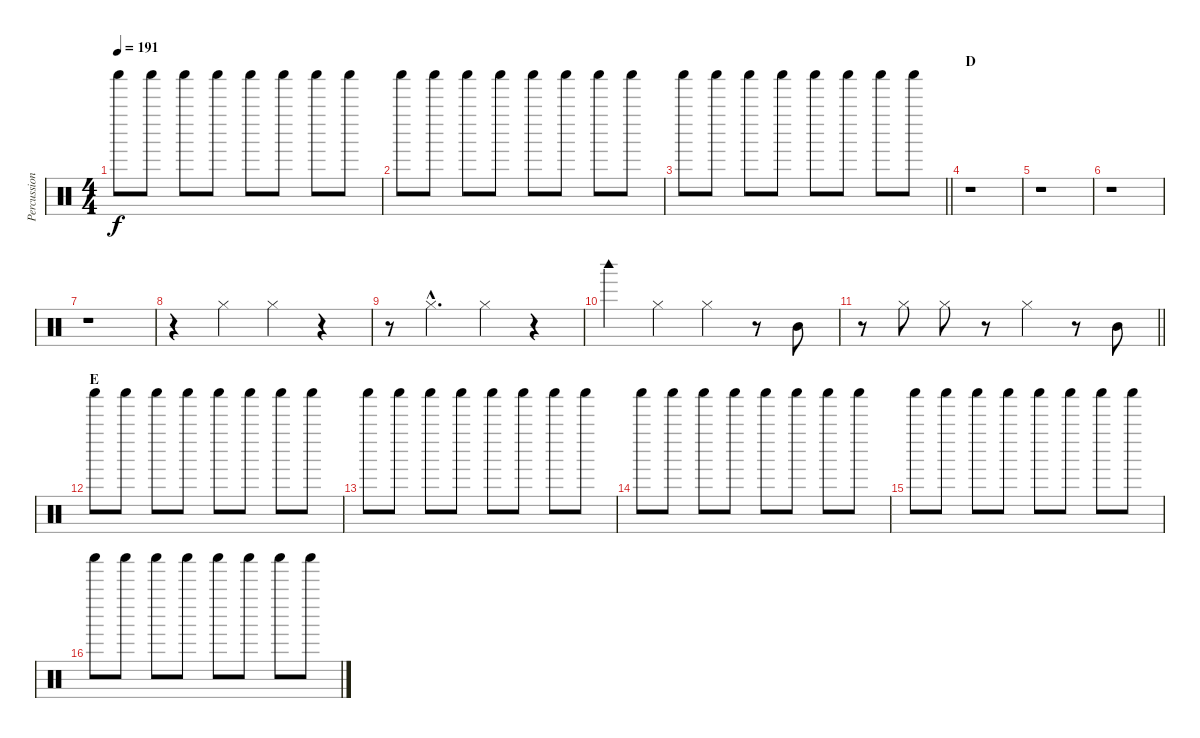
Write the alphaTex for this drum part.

\track ("Percussion" "Percussion") {instrument percussion}
\staff {score}
\articulation defaults
\ts (4 4)
\tempo 191
\clef neutral
\ks c "Shaker (hit)".8{dy f} "Shaker (hit)".8 "Shaker (hit)".8 "Shaker (hit)".8 "Shaker (hit)".8 "Shaker (hit)".8 "Shaker (hit)".8 "Shaker (hit)".8
|
"Shaker (hit)".8 "Shaker (hit)".8 "Shaker (hit)".8 "Shaker (hit)".8 "Shaker (hit)".8 "Shaker (hit)".8 "Shaker (hit)".8 "Shaker (hit)".8 |
\barLineRight lightlight "Shaker (hit)".8 "Shaker (hit)".8 "Shaker (hit)".8 "Shaker (hit)".8 "Shaker (hit)".8 "Shaker (hit)".8 "Shaker (hit)".8 "Shaker (hit)".8
|
\section ("" "D")
r.1 |
r.1 |
r.1 |
r.1 |
r.4 "Hi-Hat (closed)".4 "Hi-Hat (closed)".4 r.4 |
r.8 "Hi-Hat (closed)"{hac}.4{d} "Hi-Hat (closed)".4 r.4 |
"Woodblock high (hit)".4 "Hi-Hat (closed)".4 "Hi-Hat (closed)".4 r.8 "Mid Tom (hit)".8 |
\barLineRight lightlight
r.8 "Hi-Hat (closed)".8 "Hi-Hat (closed)".8 r.8 "Hi-Hat (closed)".4 r.8 "Mid Tom (hit)".8 |
\section ("" "E")
"Shaker (hit)".8 "Shaker (hit)".8 "Shaker (hit)".8 "Shaker (hit)".8 "Shaker (hit)".8 "Shaker (hit)".8 "Shaker (hit)".8 "Shaker (hit)".8 |
"Shaker (hit)".8 "Shaker (hit)".8 "Shaker (hit)".8 "Shaker (hit)".8 "Shaker (hit)".8 "Shaker (hit)".8 "Shaker (hit)".8 "Shaker (hit)".8 |
"Shaker (hit)".8 "Shaker (hit)".8 "Shaker (hit)".8 "Shaker (hit)".8 "Shaker (hit)".8 "Shaker (hit)".8 "Shaker (hit)".8 "Shaker (hit)".8 |
"Shaker (hit)".8 "Shaker (hit)".8 "Shaker (hit)".8 "Shaker (hit)".8 "Shaker (hit)".8 "Shaker (hit)".8 "Shaker (hit)".8 "Shaker (hit)".8 |
"Shaker (hit)".8 "Shaker (hit)".8 "Shaker (hit)".8 "Shaker (hit)".8 "Shaker (hit)".8 "Shaker (hit)".8 "Shaker (hit)".8 "Shaker (hit)".8
